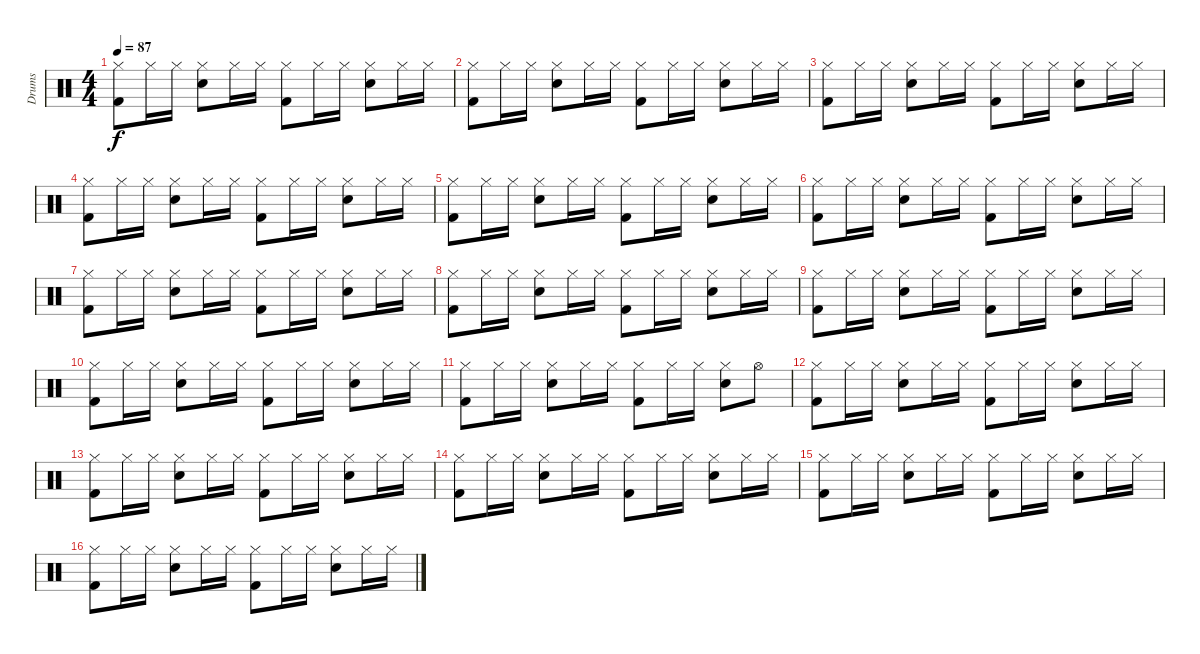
\track ("Drums" "Drums") {instrument percussion}
\staff {score}
\articulation defaults
\ts (4 4)
\tempo 87
\clef neutral
\ks c
("Hi-Hat (closed)" "Kick (hit) 2").8{dy f} "Hi-Hat (closed)".16 "Hi-Hat (closed)".16 ("Hi-Hat (closed)" "Snare (hit) 2").8 "Hi-Hat (closed)".16 "Hi-Hat (closed)".16 ("Hi-Hat (closed)" "Kick (hit) 2").8 "Hi-Hat (closed)".16 "Hi-Hat (closed)".16 ("Hi-Hat (closed)" "Snare (hit) 2").8 "Hi-Hat (closed)".16 "Hi-Hat (closed)".16 |
("Hi-Hat (closed)" "Kick (hit) 2").8 "Hi-Hat (closed)".16 "Hi-Hat (closed)".16 ("Hi-Hat (closed)" "Snare (hit) 2").8 "Hi-Hat (closed)".16 "Hi-Hat (closed)".16 ("Hi-Hat (closed)" "Kick (hit) 2").8 "Hi-Hat (closed)".16 "Hi-Hat (closed)".16 ("Hi-Hat (closed)" "Snare (hit) 2").8 "Hi-Hat (closed)".16 "Hi-Hat (closed)".16 |
("Hi-Hat (closed)" "Kick (hit) 2").8 "Hi-Hat (closed)".16 "Hi-Hat (closed)".16 ("Hi-Hat (closed)" "Snare (hit) 2").8 "Hi-Hat (closed)".16 "Hi-Hat (closed)".16 ("Hi-Hat (closed)" "Kick (hit) 2").8 "Hi-Hat (closed)".16 "Hi-Hat (closed)".16 ("Hi-Hat (closed)" "Snare (hit) 2").8 "Hi-Hat (closed)".16 "Hi-Hat (closed)".16 |
("Hi-Hat (closed)" "Kick (hit) 2").8 "Hi-Hat (closed)".16 "Hi-Hat (closed)".16 ("Hi-Hat (closed)" "Snare (hit) 2").8 "Hi-Hat (closed)".16 "Hi-Hat (closed)".16 ("Hi-Hat (closed)" "Kick (hit) 2").8 "Hi-Hat (closed)".16 "Hi-Hat (closed)".16 ("Hi-Hat (closed)" "Snare (hit) 2").8 "Hi-Hat (closed)".16 "Hi-Hat (closed)".16 |
("Hi-Hat (closed)" "Kick (hit) 2").8 "Hi-Hat (closed)".16 "Hi-Hat (closed)".16 ("Hi-Hat (closed)" "Snare (hit) 2").8 "Hi-Hat (closed)".16 "Hi-Hat (closed)".16 ("Hi-Hat (closed)" "Kick (hit) 2").8 "Hi-Hat (closed)".16 "Hi-Hat (closed)".16 ("Hi-Hat (closed)" "Snare (hit) 2").8 "Hi-Hat (closed)".16 "Hi-Hat (closed)".16 |
("Hi-Hat (closed)" "Kick (hit) 2").8 "Hi-Hat (closed)".16 "Hi-Hat (closed)".16 ("Hi-Hat (closed)" "Snare (hit) 2").8 "Hi-Hat (closed)".16 "Hi-Hat (closed)".16 ("Hi-Hat (closed)" "Kick (hit) 2").8 "Hi-Hat (closed)".16 "Hi-Hat (closed)".16 ("Hi-Hat (closed)" "Snare (hit) 2").8 "Hi-Hat (closed)".16 "Hi-Hat (closed)".16 |
("Hi-Hat (closed)" "Kick (hit) 2").8 "Hi-Hat (closed)".16 "Hi-Hat (closed)".16 ("Hi-Hat (closed)" "Snare (hit) 2").8 "Hi-Hat (closed)".16 "Hi-Hat (closed)".16 ("Hi-Hat (closed)" "Kick (hit) 2").8 "Hi-Hat (closed)".16 "Hi-Hat (closed)".16 ("Hi-Hat (closed)" "Snare (hit) 2").8 "Hi-Hat (closed)".16 "Hi-Hat (closed)".16 |
("Hi-Hat (closed)" "Kick (hit) 2").8 "Hi-Hat (closed)".16 "Hi-Hat (closed)".16 ("Hi-Hat (closed)" "Snare (hit) 2").8 "Hi-Hat (closed)".16 "Hi-Hat (closed)".16 ("Hi-Hat (closed)" "Kick (hit) 2").8 "Hi-Hat (closed)".16 "Hi-Hat (closed)".16 ("Hi-Hat (closed)" "Snare (hit) 2").8 "Hi-Hat (closed)".16 "Hi-Hat (closed)".16 |
("Hi-Hat (closed)" "Kick (hit) 2").8 "Hi-Hat (closed)".16 "Hi-Hat (closed)".16 ("Hi-Hat (closed)" "Snare (hit) 2").8 "Hi-Hat (closed)".16 "Hi-Hat (closed)".16 ("Hi-Hat (closed)" "Kick (hit) 2").8 "Hi-Hat (closed)".16 "Hi-Hat (closed)".16 ("Hi-Hat (closed)" "Snare (hit) 2").8 "Hi-Hat (closed)".16 "Hi-Hat (closed)".16 |
("Hi-Hat (closed)" "Kick (hit) 2").8 "Hi-Hat (closed)".16 "Hi-Hat (closed)".16 ("Hi-Hat (closed)" "Snare (hit) 2").8 "Hi-Hat (closed)".16 "Hi-Hat (closed)".16 ("Hi-Hat (closed)" "Kick (hit) 2").8 "Hi-Hat (closed)".16 "Hi-Hat (closed)".16 ("Hi-Hat (closed)" "Snare (hit) 2").8 "Hi-Hat (closed)".16 "Hi-Hat (closed)".16 |
("Hi-Hat (closed)" "Kick (hit) 2").8 "Hi-Hat (closed)".16 "Hi-Hat (closed)".16 ("Hi-Hat (closed)" "Snare (hit) 2").8 "Hi-Hat (closed)".16 "Hi-Hat (closed)".16 ("Hi-Hat (closed)" "Kick (hit) 2").8 "Hi-Hat (closed)".16 "Hi-Hat (closed)".16 ("Hi-Hat (closed)" "Snare (hit) 2").8 "Hi-Hat (open)".8 |
("Hi-Hat (closed)" "Kick (hit) 2").8 "Hi-Hat (closed)".16 "Hi-Hat (closed)".16 ("Hi-Hat (closed)" "Snare (hit) 2").8 "Hi-Hat (closed)".16 "Hi-Hat (closed)".16 ("Hi-Hat (closed)" "Kick (hit) 2").8 "Hi-Hat (closed)".16 "Hi-Hat (closed)".16 ("Hi-Hat (closed)" "Snare (hit) 2").8 "Hi-Hat (closed)".16 "Hi-Hat (closed)".16 |
("Hi-Hat (closed)" "Kick (hit) 2").8 "Hi-Hat (closed)".16 "Hi-Hat (closed)".16 ("Hi-Hat (closed)" "Snare (hit) 2").8 "Hi-Hat (closed)".16 "Hi-Hat (closed)".16 ("Hi-Hat (closed)" "Kick (hit) 2").8 "Hi-Hat (closed)".16 "Hi-Hat (closed)".16 ("Hi-Hat (closed)" "Snare (hit) 2").8 "Hi-Hat (closed)".16 "Hi-Hat (closed)".16 |
("Hi-Hat (closed)" "Kick (hit) 2").8 "Hi-Hat (closed)".16 "Hi-Hat (closed)".16 ("Hi-Hat (closed)" "Snare (hit) 2").8 "Hi-Hat (closed)".16 "Hi-Hat (closed)".16 ("Hi-Hat (closed)" "Kick (hit) 2").8 "Hi-Hat (closed)".16 "Hi-Hat (closed)".16 ("Hi-Hat (closed)" "Snare (hit) 2").8 "Hi-Hat (closed)".16 "Hi-Hat (closed)".16 |
("Hi-Hat (closed)" "Kick (hit) 2").8 "Hi-Hat (closed)".16 "Hi-Hat (closed)".16 ("Hi-Hat (closed)" "Snare (hit) 2").8 "Hi-Hat (closed)".16 "Hi-Hat (closed)".16 ("Hi-Hat (closed)" "Kick (hit) 2").8 "Hi-Hat (closed)".16 "Hi-Hat (closed)".16 ("Hi-Hat (closed)" "Snare (hit) 2").8 "Hi-Hat (closed)".16 "Hi-Hat (closed)".16 |
("Hi-Hat (closed)" "Kick (hit) 2").8 "Hi-Hat (closed)".16 "Hi-Hat (closed)".16 ("Hi-Hat (closed)" "Snare (hit) 2").8 "Hi-Hat (closed)".16 "Hi-Hat (closed)".16 ("Hi-Hat (closed)" "Kick (hit) 2").8 "Hi-Hat (closed)".16 "Hi-Hat (closed)".16 ("Hi-Hat (closed)" "Snare (hit) 2").8 "Hi-Hat (closed)".16 "Hi-Hat (closed)".16
